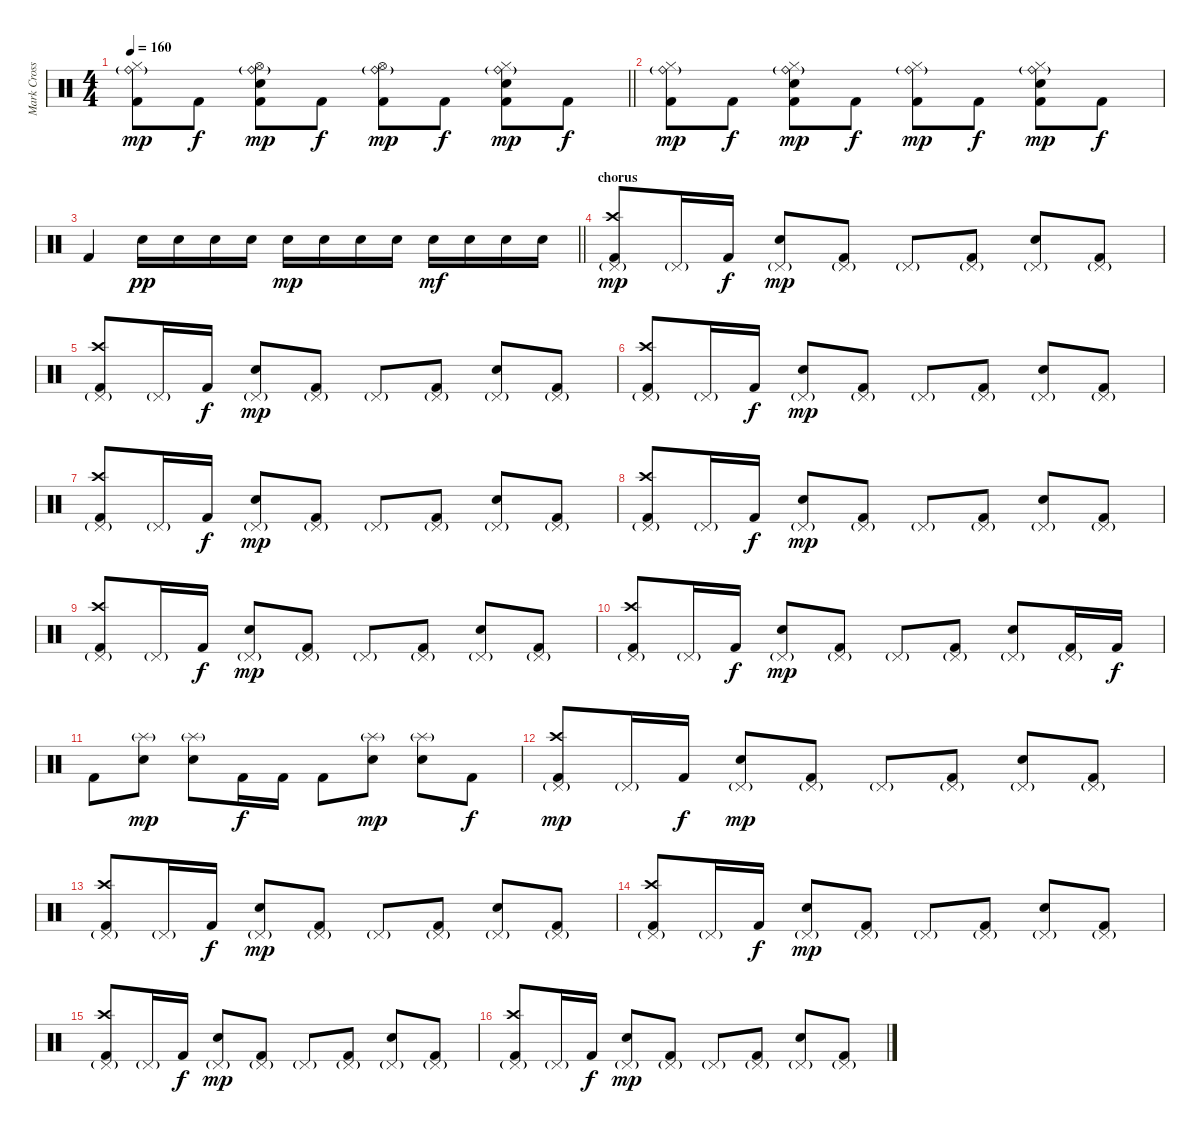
\track ("Mark Cross" "Mark Cross") {instrument percussion}
\staff {score}
\articulation defaults
\ts (4 4)
\tempo 160
\clef neutral
\barLineRight lightlight
\ks aminor
("Ride (bell)"{g} "Hi-Hat (closed)" "Kick (hit) 2").8{dy mp} "Kick (hit) 2".8{dy f} ("Hi-Hat (open)" "Ride (bell)"{g} "Electric Snare (hit)" "Kick (hit) 2").8{dy mp} "Kick (hit) 2".8{dy f} ("Hi-Hat (open)" "Ride (bell)"{g} "Kick (hit) 2").8{dy mp} "Kick (hit) 2".8{dy f} ("Ride (bell)"{g} "Hi-Hat (closed)" "Electric Snare (hit)" "Kick (hit) 2").8{dy mp} "Kick (hit) 2".8{dy f} |
("Ride (bell)"{g} "Hi-Hat (closed)" "Kick (hit) 2").8{dy mp} "Kick (hit) 2".8{dy f} ("Ride (bell)"{g} "Hi-Hat (closed)" "Electric Snare (hit)" "Kick (hit) 2").8{dy mp} "Kick (hit) 2".8{dy f} ("Ride (bell)"{g} "Hi-Hat (closed)" "Kick (hit) 2").8{dy mp} "Kick (hit) 2".8{dy f} ("Ride (bell)"{g} "Hi-Hat (closed)" "Electric Snare (hit)" "Kick (hit) 2").8{dy mp} "Kick (hit) 2".8{dy f} |
\barLineRight lightlight "Kick (hit) 2".4 "Electric Snare (hit)".16{dy pp} "Electric Snare (hit)".16 "Electric Snare (hit)".16 "Electric Snare (hit)".16 "Electric Snare (hit)".16{dy mp} "Electric Snare (hit)".16 "Electric Snare (hit)".16 "Electric Snare (hit)".16 "Electric Snare (hit)".16{dy mf} "Electric Snare (hit)".16 "Electric Snare (hit)".16 "Electric Snare (hit)".16
|
\section ("" "chorus")
("Crash high (hit)" "Pedal Hi-Hat (hit)"{g} "Kick (hit) 2").8{dy mp} "Pedal Hi-Hat (hit)"{g}.16 "Kick (hit) 2".16{dy f} ("Pedal Hi-Hat (hit)"{g} "Electric Snare (hit)").8{dy mp} ("Pedal Hi-Hat (hit)"{g} "Kick (hit) 2").8 "Pedal Hi-Hat (hit)"{g}.8 ("Pedal Hi-Hat (hit)"{g} "Kick (hit) 2").8 ("Pedal Hi-Hat (hit)"{g} "Electric Snare (hit)").8 ("Pedal Hi-Hat (hit)"{g} "Kick (hit) 2").8 |
("Crash high (hit)" "Pedal Hi-Hat (hit)"{g} "Kick (hit) 2").8 "Pedal Hi-Hat (hit)"{g}.16 "Kick (hit) 2".16{dy f} ("Pedal Hi-Hat (hit)"{g} "Electric Snare (hit)").8{dy mp} ("Pedal Hi-Hat (hit)"{g} "Kick (hit) 2").8 "Pedal Hi-Hat (hit)"{g}.8 ("Pedal Hi-Hat (hit)"{g} "Kick (hit) 2").8 ("Pedal Hi-Hat (hit)"{g} "Electric Snare (hit)").8 ("Pedal Hi-Hat (hit)"{g} "Kick (hit) 2").8 |
("Crash high (hit)" "Pedal Hi-Hat (hit)"{g} "Kick (hit) 2").8 "Pedal Hi-Hat (hit)"{g}.16 "Kick (hit) 2".16{dy f} ("Pedal Hi-Hat (hit)"{g} "Electric Snare (hit)").8{dy mp} ("Pedal Hi-Hat (hit)"{g} "Kick (hit) 2").8 "Pedal Hi-Hat (hit)"{g}.8 ("Pedal Hi-Hat (hit)"{g} "Kick (hit) 2").8 ("Pedal Hi-Hat (hit)"{g} "Electric Snare (hit)").8 ("Pedal Hi-Hat (hit)"{g} "Kick (hit) 2").8 |
("Crash high (hit)" "Pedal Hi-Hat (hit)"{g} "Kick (hit) 2").8 "Pedal Hi-Hat (hit)"{g}.16 "Kick (hit) 2".16{dy f} ("Pedal Hi-Hat (hit)"{g} "Electric Snare (hit)").8{dy mp} ("Pedal Hi-Hat (hit)"{g} "Kick (hit) 2").8 "Pedal Hi-Hat (hit)"{g}.8 ("Pedal Hi-Hat (hit)"{g} "Kick (hit) 2").8 ("Pedal Hi-Hat (hit)"{g} "Electric Snare (hit)").8 ("Pedal Hi-Hat (hit)"{g} "Kick (hit) 2").8 |
("Crash high (hit)" "Pedal Hi-Hat (hit)"{g} "Kick (hit) 2").8 "Pedal Hi-Hat (hit)"{g}.16 "Kick (hit) 2".16{dy f} ("Pedal Hi-Hat (hit)"{g} "Electric Snare (hit)").8{dy mp} ("Pedal Hi-Hat (hit)"{g} "Kick (hit) 2").8 "Pedal Hi-Hat (hit)"{g}.8 ("Pedal Hi-Hat (hit)"{g} "Kick (hit) 2").8 ("Pedal Hi-Hat (hit)"{g} "Electric Snare (hit)").8 ("Pedal Hi-Hat (hit)"{g} "Kick (hit) 2").8 |
("Crash high (hit)" "Pedal Hi-Hat (hit)"{g} "Kick (hit) 2").8 "Pedal Hi-Hat (hit)"{g}.16 "Kick (hit) 2".16{dy f} ("Pedal Hi-Hat (hit)"{g} "Electric Snare (hit)").8{dy mp} ("Pedal Hi-Hat (hit)"{g} "Kick (hit) 2").8 "Pedal Hi-Hat (hit)"{g}.8 ("Pedal Hi-Hat (hit)"{g} "Kick (hit) 2").8 ("Pedal Hi-Hat (hit)"{g} "Electric Snare (hit)").8 ("Pedal Hi-Hat (hit)"{g} "Kick (hit) 2").8 |
("Crash high (hit)" "Pedal Hi-Hat (hit)"{g} "Kick (hit) 2").8 "Pedal Hi-Hat (hit)"{g}.16 "Kick (hit) 2".16{dy f} ("Pedal Hi-Hat (hit)"{g} "Electric Snare (hit)").8{dy mp} ("Pedal Hi-Hat (hit)"{g} "Kick (hit) 2").8 "Pedal Hi-Hat (hit)"{g}.8 ("Pedal Hi-Hat (hit)"{g} "Kick (hit) 2").8 ("Pedal Hi-Hat (hit)"{g} "Electric Snare (hit)").8 ("Pedal Hi-Hat (hit)"{g} "Kick (hit) 2").16 "Kick (hit) 2".16{dy f} |
"Kick (hit) 2".8 ("Splash (hit)"{g} "Electric Snare (hit)").8{dy mp} ("Splash (hit)"{g} "Electric Snare (hit)").8 "Kick (hit) 2".16{dy f} "Kick (hit) 2".16 "Kick (hit) 2".8 ("Splash (hit)"{g} "Electric Snare (hit)").8{dy mp} ("Splash (hit)"{g} "Electric Snare (hit)").8 "Kick (hit) 2".8{dy f} |
("Crash high (hit)" "Pedal Hi-Hat (hit)"{g} "Kick (hit) 2").8{dy mp} "Pedal Hi-Hat (hit)"{g}.16 "Kick (hit) 2".16{dy f} ("Pedal Hi-Hat (hit)"{g} "Electric Snare (hit)").8{dy mp} ("Pedal Hi-Hat (hit)"{g} "Kick (hit) 2").8 "Pedal Hi-Hat (hit)"{g}.8 ("Pedal Hi-Hat (hit)"{g} "Kick (hit) 2").8 ("Pedal Hi-Hat (hit)"{g} "Electric Snare (hit)").8 ("Pedal Hi-Hat (hit)"{g} "Kick (hit) 2").8 |
("Crash high (hit)" "Pedal Hi-Hat (hit)"{g} "Kick (hit) 2").8 "Pedal Hi-Hat (hit)"{g}.16 "Kick (hit) 2".16{dy f} ("Pedal Hi-Hat (hit)"{g} "Electric Snare (hit)").8{dy mp} ("Pedal Hi-Hat (hit)"{g} "Kick (hit) 2").8 "Pedal Hi-Hat (hit)"{g}.8 ("Pedal Hi-Hat (hit)"{g} "Kick (hit) 2").8 ("Pedal Hi-Hat (hit)"{g} "Electric Snare (hit)").8 ("Pedal Hi-Hat (hit)"{g} "Kick (hit) 2").8 |
("Crash high (hit)" "Pedal Hi-Hat (hit)"{g} "Kick (hit) 2").8 "Pedal Hi-Hat (hit)"{g}.16 "Kick (hit) 2".16{dy f} ("Pedal Hi-Hat (hit)"{g} "Electric Snare (hit)").8{dy mp} ("Pedal Hi-Hat (hit)"{g} "Kick (hit) 2").8 "Pedal Hi-Hat (hit)"{g}.8 ("Pedal Hi-Hat (hit)"{g} "Kick (hit) 2").8 ("Pedal Hi-Hat (hit)"{g} "Electric Snare (hit)").8 ("Pedal Hi-Hat (hit)"{g} "Kick (hit) 2").8 |
("Crash high (hit)" "Pedal Hi-Hat (hit)"{g} "Kick (hit) 2").8 "Pedal Hi-Hat (hit)"{g}.16 "Kick (hit) 2".16{dy f} ("Pedal Hi-Hat (hit)"{g} "Electric Snare (hit)").8{dy mp} ("Pedal Hi-Hat (hit)"{g} "Kick (hit) 2").8 "Pedal Hi-Hat (hit)"{g}.8 ("Pedal Hi-Hat (hit)"{g} "Kick (hit) 2").8 ("Pedal Hi-Hat (hit)"{g} "Electric Snare (hit)").8 ("Pedal Hi-Hat (hit)"{g} "Kick (hit) 2").8 |
("Crash high (hit)" "Pedal Hi-Hat (hit)"{g} "Kick (hit) 2").8 "Pedal Hi-Hat (hit)"{g}.16 "Kick (hit) 2".16{dy f} ("Pedal Hi-Hat (hit)"{g} "Electric Snare (hit)").8{dy mp} ("Pedal Hi-Hat (hit)"{g} "Kick (hit) 2").8 "Pedal Hi-Hat (hit)"{g}.8 ("Pedal Hi-Hat (hit)"{g} "Kick (hit) 2").8 ("Pedal Hi-Hat (hit)"{g} "Electric Snare (hit)").8 ("Pedal Hi-Hat (hit)"{g} "Kick (hit) 2").8
